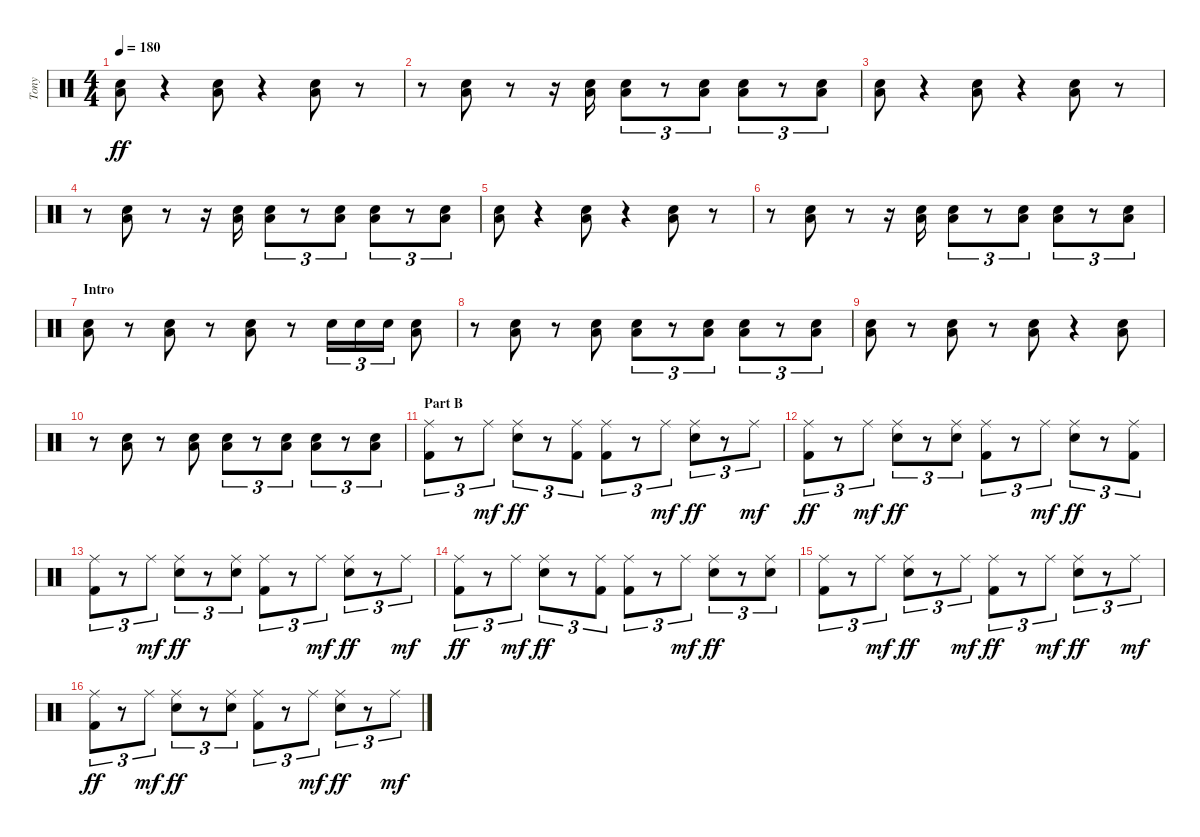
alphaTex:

\track ("Tony" "Tony") {instrument percussion}
\staff {score}
\articulation defaults
\ts (4 4)
\tempo 180
\clef neutral
\ks c
("Low Floor Tom (hit)" "Electric Snare (hit)").8{dy ff} r.4 ("Low Floor Tom (hit)" "Electric Snare (hit)").8 r.4 ("Low Floor Tom (hit)" "Electric Snare (hit)").8 r.8 |
r.8 ("Low Floor Tom (hit)" "Electric Snare (hit)").8 r.8 r.16 ("Low Floor Tom (hit)" "Electric Snare (hit)").16 ("Low Floor Tom (hit)" "Electric Snare (hit)").8{tu (3 2)} r.8{tu (3 2)} ("Low Floor Tom (hit)" "Electric Snare (hit)").8{tu (3 2)} ("Low Floor Tom (hit)" "Electric Snare (hit)").8{tu (3 2)} r.8{tu (3 2)} ("Low Floor Tom (hit)" "Electric Snare (hit)").8{tu (3 2)} |
("Low Floor Tom (hit)" "Electric Snare (hit)").8 r.4 ("Low Floor Tom (hit)" "Electric Snare (hit)").8 r.4 ("Low Floor Tom (hit)" "Electric Snare (hit)").8 r.8 |
r.8 ("Low Floor Tom (hit)" "Electric Snare (hit)").8 r.8 r.16 ("Low Floor Tom (hit)" "Electric Snare (hit)").16 ("Low Floor Tom (hit)" "Electric Snare (hit)").8{tu (3 2)} r.8{tu (3 2)} ("Low Floor Tom (hit)" "Electric Snare (hit)").8{tu (3 2)} ("Low Floor Tom (hit)" "Electric Snare (hit)").8{tu (3 2)} r.8{tu (3 2)} ("Low Floor Tom (hit)" "Electric Snare (hit)").8{tu (3 2)} |
("Low Floor Tom (hit)" "Electric Snare (hit)").8 r.4 ("Low Floor Tom (hit)" "Electric Snare (hit)").8 r.4 ("Low Floor Tom (hit)" "Electric Snare (hit)").8 r.8 |
r.8 ("Low Floor Tom (hit)" "Electric Snare (hit)").8 r.8 r.16 ("Low Floor Tom (hit)" "Electric Snare (hit)").16 ("Low Floor Tom (hit)" "Electric Snare (hit)").8{tu (3 2)} r.8{tu (3 2)} ("Low Floor Tom (hit)" "Electric Snare (hit)").8{tu (3 2)} ("Low Floor Tom (hit)" "Electric Snare (hit)").8{tu (3 2)} r.8{tu (3 2)} ("Low Floor Tom (hit)" "Electric Snare (hit)").8{tu (3 2)} |
\section ("" "Intro")
("Low Floor Tom (hit)" "Electric Snare (hit)").8 r.8 ("Low Floor Tom (hit)" "Electric Snare (hit)").8 r.8 ("Low Floor Tom (hit)" "Electric Snare (hit)").8 r.8 "Electric Snare (hit)".16{tu (3 2)} "Electric Snare (hit)".16{tu (3 2)} "Electric Snare (hit)".16{tu (3 2)} ("Low Floor Tom (hit)" "Electric Snare (hit)").8 |
r.8 ("Low Floor Tom (hit)" "Electric Snare (hit)").8 r.8 ("Low Floor Tom (hit)" "Electric Snare (hit)").8 ("Low Floor Tom (hit)" "Electric Snare (hit)").8{tu (3 2)} r.8{tu (3 2)} ("Low Floor Tom (hit)" "Electric Snare (hit)").8{tu (3 2)} ("Low Floor Tom (hit)" "Electric Snare (hit)").8{tu (3 2)} r.8{tu (3 2)} ("Low Floor Tom (hit)" "Electric Snare (hit)").8{tu (3 2)} |
("Low Floor Tom (hit)" "Electric Snare (hit)").8 r.8 ("Low Floor Tom (hit)" "Electric Snare (hit)").8 r.8 ("Low Floor Tom (hit)" "Electric Snare (hit)").8 r.4 ("Low Floor Tom (hit)" "Electric Snare (hit)").8 |
r.8 ("Low Floor Tom (hit)" "Electric Snare (hit)").8 r.8 ("Low Floor Tom (hit)" "Electric Snare (hit)").8 ("Low Floor Tom (hit)" "Electric Snare (hit)").8{tu (3 2)} r.8{tu (3 2)} ("Low Floor Tom (hit)" "Electric Snare (hit)").8{tu (3 2)} ("Low Floor Tom (hit)" "Electric Snare (hit)").8{tu (3 2)} r.8{tu (3 2)} ("Low Floor Tom (hit)" "Electric Snare (hit)").8{tu (3 2)} |
\section ("" "Part B")
("Ride (middle)" "Kick (hit) 2").8{tu (3 2)} r.8{tu (3 2)} "Ride (middle)".8{tu (3 2) dy mf} ("Ride (middle)" "Electric Snare (hit)").8{tu (3 2) dy ff} r.8{tu (3 2)} ("Ride (middle)" "Kick (hit) 2").8{tu (3 2)} ("Ride (middle)" "Kick (hit) 2").8{tu (3 2)} r.8{tu (3 2)} "Ride (middle)".8{tu (3 2) dy mf} ("Ride (middle)" "Electric Snare (hit)").8{tu (3 2) dy ff} r.8{tu (3 2)} "Ride (middle)".8{tu (3 2) dy mf} |
("Ride (middle)" "Kick (hit) 2").8{tu (3 2) dy ff} r.8{tu (3 2)} "Ride (middle)".8{tu (3 2) dy mf} ("Ride (middle)" "Electric Snare (hit)").8{tu (3 2) dy ff} r.8{tu (3 2)} ("Ride (middle)" "Electric Snare (hit)").8{tu (3 2)} ("Ride (middle)" "Kick (hit) 2").8{tu (3 2)} r.8{tu (3 2)} "Ride (middle)".8{tu (3 2) dy mf} ("Ride (middle)" "Electric Snare (hit)").8{tu (3 2) dy ff} r.8{tu (3 2)} ("Ride (middle)" "Kick (hit) 2").8{tu (3 2)} |
("Ride (middle)" "Kick (hit) 2").8{tu (3 2)} r.8{tu (3 2)} "Ride (middle)".8{tu (3 2) dy mf} ("Ride (middle)" "Electric Snare (hit)").8{tu (3 2) dy ff} r.8{tu (3 2)} ("Ride (middle)" "Electric Snare (hit)").8{tu (3 2)} ("Ride (middle)" "Kick (hit) 2").8{tu (3 2)} r.8{tu (3 2)} "Ride (middle)".8{tu (3 2) dy mf} ("Ride (middle)" "Electric Snare (hit)").8{tu (3 2) dy ff} r.8{tu (3 2)} "Ride (middle)".8{tu (3 2) dy mf} |
("Ride (middle)" "Kick (hit) 2").8{tu (3 2) dy ff} r.8{tu (3 2)} "Ride (middle)".8{tu (3 2) dy mf} ("Ride (middle)" "Electric Snare (hit)").8{tu (3 2) dy ff} r.8{tu (3 2)} ("Ride (middle)" "Kick (hit) 2").8{tu (3 2)} ("Ride (middle)" "Kick (hit) 2").8{tu (3 2)} r.8{tu (3 2)} "Ride (middle)".8{tu (3 2) dy mf} ("Ride (middle)" "Electric Snare (hit)").8{tu (3 2) dy ff} r.8{tu (3 2)} ("Ride (middle)" "Electric Snare (hit)").8{tu (3 2)} |
("Ride (middle)" "Kick (hit) 2").8{tu (3 2)} r.8{tu (3 2)} "Ride (middle)".8{tu (3 2) dy mf} ("Ride (middle)" "Electric Snare (hit)").8{tu (3 2) dy ff} r.8{tu (3 2)} "Ride (middle)".8{tu (3 2) dy mf} ("Ride (middle)" "Kick (hit) 2").8{tu (3 2) dy ff} r.8{tu (3 2)} "Ride (middle)".8{tu (3 2) dy mf} ("Ride (middle)" "Electric Snare (hit)").8{tu (3 2) dy ff} r.8{tu (3 2)} "Ride (middle)".8{tu (3 2) dy mf} |
("Ride (middle)" "Kick (hit) 2").8{tu (3 2) dy ff} r.8{tu (3 2)} "Ride (middle)".8{tu (3 2) dy mf} ("Ride (middle)" "Electric Snare (hit)").8{tu (3 2) dy ff} r.8{tu (3 2)} ("Ride (middle)" "Electric Snare (hit)").8{tu (3 2)} ("Ride (middle)" "Kick (hit) 2").8{tu (3 2)} r.8{tu (3 2)} "Ride (middle)".8{tu (3 2) dy mf} ("Ride (middle)" "Electric Snare (hit)").8{tu (3 2) dy ff} r.8{tu (3 2)} "Ride (middle)".8{tu (3 2) dy mf}
